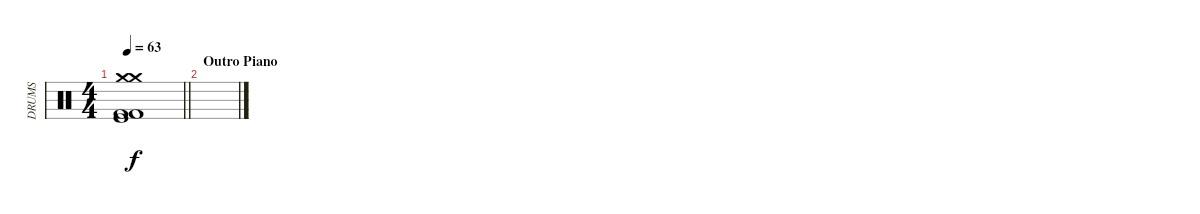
\track ("DRUMS" "DRUMS") {instrument percussion}
\staff {score}
\articulation defaults
\ts (4 4)
\tempo 63
\clef neutral
\barLineRight lightlight
\ks c
("Crash medium (hit)"{t} "Crash medium (hit)"{t} "Kick (hit) 2"{t} "Kick (hit)"{t} "Kick (hit) 2"{t}).1{dy f} |
\section ("" "Outro Piano")
